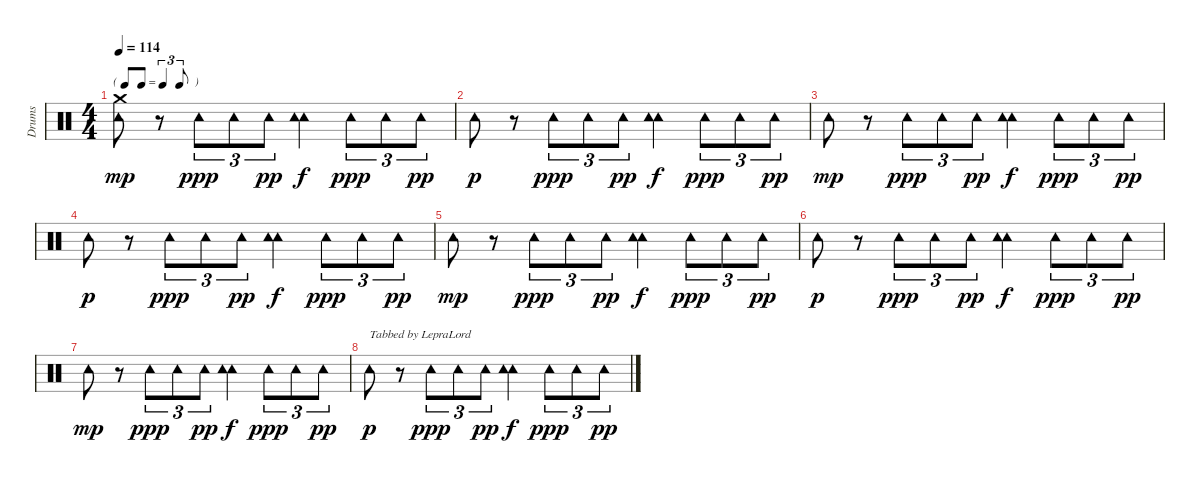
\track ("Drums" "Drums") {instrument percussion}
\staff {score}
\articulation defaults
\ts (4 4)
\tf triplet8th
\tempo 114
\clef neutral
\ks c
("Crash medium (hit)" "Tambourine (hit)").8{dy mp} r.8 "Tambourine (hit)".8{tu (3 2) dy ppp} "Tambourine (hit)".8{tu (3 2)} "Tambourine (hit)".8{tu (3 2) dy pp} ("Tambourine (hit)" "Tambourine (hit)").4{dy f} "Tambourine (hit)".8{tu (3 2) dy ppp} "Tambourine (hit)".8{tu (3 2)} "Tambourine (hit)".8{tu (3 2) dy pp} |
"Tambourine (hit)".8{dy p} r.8 "Tambourine (hit)".8{tu (3 2) dy ppp} "Tambourine (hit)".8{tu (3 2)} "Tambourine (hit)".8{tu (3 2) dy pp} ("Tambourine (hit)" "Tambourine (hit)").4{dy f} "Tambourine (hit)".8{tu (3 2) dy ppp} "Tambourine (hit)".8{tu (3 2)} "Tambourine (hit)".8{tu (3 2) dy pp} |
"Tambourine (hit)".8{dy mp} r.8 "Tambourine (hit)".8{tu (3 2) dy ppp} "Tambourine (hit)".8{tu (3 2)} "Tambourine (hit)".8{tu (3 2) dy pp} ("Tambourine (hit)" "Tambourine (hit)").4{dy f} "Tambourine (hit)".8{tu (3 2) dy ppp} "Tambourine (hit)".8{tu (3 2)} "Tambourine (hit)".8{tu (3 2) dy pp} |
"Tambourine (hit)".8{dy p} r.8 "Tambourine (hit)".8{tu (3 2) dy ppp} "Tambourine (hit)".8{tu (3 2)} "Tambourine (hit)".8{tu (3 2) dy pp} ("Tambourine (hit)" "Tambourine (hit)").4{dy f} "Tambourine (hit)".8{tu (3 2) dy ppp} "Tambourine (hit)".8{tu (3 2)} "Tambourine (hit)".8{tu (3 2) dy pp} |
"Tambourine (hit)".8{dy mp} r.8 "Tambourine (hit)".8{tu (3 2) dy ppp} "Tambourine (hit)".8{tu (3 2)} "Tambourine (hit)".8{tu (3 2) dy pp} ("Tambourine (hit)" "Tambourine (hit)").4{dy f} "Tambourine (hit)".8{tu (3 2) dy ppp} "Tambourine (hit)".8{tu (3 2)} "Tambourine (hit)".8{tu (3 2) dy pp} |
"Tambourine (hit)".8{dy p} r.8 "Tambourine (hit)".8{tu (3 2) dy ppp} "Tambourine (hit)".8{tu (3 2)} "Tambourine (hit)".8{tu (3 2) dy pp} ("Tambourine (hit)" "Tambourine (hit)").4{dy f} "Tambourine (hit)".8{tu (3 2) dy ppp} "Tambourine (hit)".8{tu (3 2)} "Tambourine (hit)".8{tu (3 2) dy pp} |
"Tambourine (hit)".8{dy mp} r.8 "Tambourine (hit)".8{tu (3 2) dy ppp} "Tambourine (hit)".8{tu (3 2)} "Tambourine (hit)".8{tu (3 2) dy pp} ("Tambourine (hit)" "Tambourine (hit)").4{dy f} "Tambourine (hit)".8{tu (3 2) dy ppp} "Tambourine (hit)".8{tu (3 2)} "Tambourine (hit)".8{tu (3 2) dy pp} |
"Tambourine (hit)".8{txt "Tabbed by LepraLord" dy p} r.8 "Tambourine (hit)".8{tu (3 2) dy ppp} "Tambourine (hit)".8{tu (3 2)} "Tambourine (hit)".8{tu (3 2) dy pp} ("Tambourine (hit)" "Tambourine (hit)").4{dy f} "Tambourine (hit)".8{tu (3 2) dy ppp} "Tambourine (hit)".8{tu (3 2)} "Tambourine (hit)".8{tu (3 2) dy pp}
